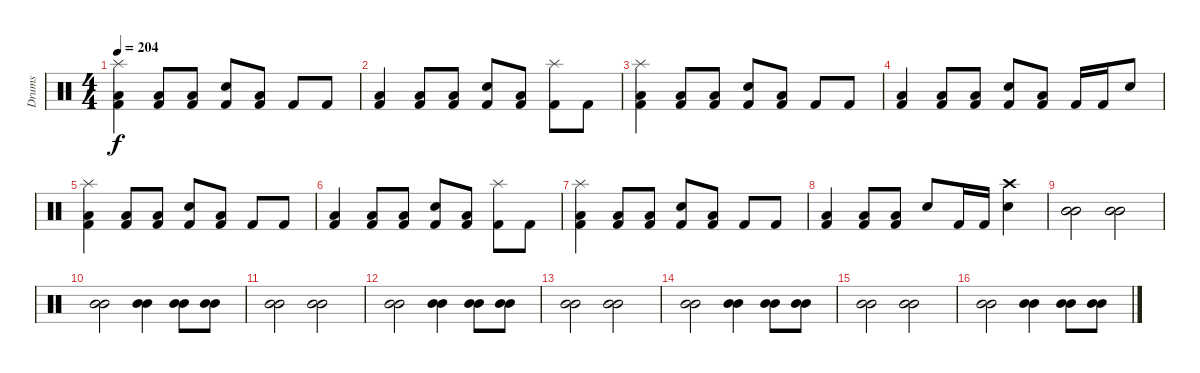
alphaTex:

\track ("Drums" "Drums") {instrument percussion}
\staff {score}
\articulation defaults
\ts (4 4)
\tempo 204
\clef neutral
\ks c
("Splash (hit)" "Low Floor Tom (hit)" "Kick (hit) 2").4{dy f} ("Low Floor Tom (hit)" "Kick (hit) 2").8 ("Low Floor Tom (hit)" "Kick (hit) 2").8 ("Electric Snare (hit)" "Kick (hit) 2").8 ("Low Floor Tom (hit)" "Kick (hit) 2").8 "Kick (hit) 2".8 "Kick (hit) 2".8 |
("Low Floor Tom (hit)" "Kick (hit) 2").4 ("Low Floor Tom (hit)" "Kick (hit) 2").8 ("Low Floor Tom (hit)" "Kick (hit) 2").8 ("Electric Snare (hit)" "Kick (hit) 2").8 ("Low Floor Tom (hit)" "Kick (hit) 2").8 ("Splash (hit)" "Kick (hit) 2").8 "Kick (hit) 2".8 |
("Splash (hit)" "Low Floor Tom (hit)" "Kick (hit) 2").4 ("Low Floor Tom (hit)" "Kick (hit) 2").8 ("Low Floor Tom (hit)" "Kick (hit) 2").8 ("Electric Snare (hit)" "Kick (hit) 2").8 ("Low Floor Tom (hit)" "Kick (hit) 2").8 "Kick (hit) 2".8 "Kick (hit) 2".8 |
("Low Floor Tom (hit)" "Kick (hit) 2").4 ("Low Floor Tom (hit)" "Kick (hit) 2").8 ("Low Floor Tom (hit)" "Kick (hit) 2").8 ("Electric Snare (hit)" "Kick (hit) 2").8 ("Low Floor Tom (hit)" "Kick (hit) 2").8 "Kick (hit) 2".16 "Kick (hit) 2".16 "Electric Snare (hit)".8 |
("Splash (hit)" "Low Floor Tom (hit)" "Kick (hit) 2").4 ("Low Floor Tom (hit)" "Kick (hit) 2").8 ("Low Floor Tom (hit)" "Kick (hit) 2").8 ("Electric Snare (hit)" "Kick (hit) 2").8 ("Low Floor Tom (hit)" "Kick (hit) 2").8 "Kick (hit) 2".8 "Kick (hit) 2".8 |
("Low Floor Tom (hit)" "Kick (hit) 2").4 ("Low Floor Tom (hit)" "Kick (hit) 2").8 ("Low Floor Tom (hit)" "Kick (hit) 2").8 ("Electric Snare (hit)" "Kick (hit) 2").8 ("Low Floor Tom (hit)" "Kick (hit) 2").8 ("Splash (hit)" "Kick (hit) 2").8 "Kick (hit) 2".8 |
("Splash (hit)" "Low Floor Tom (hit)" "Kick (hit) 2").4 ("Low Floor Tom (hit)" "Kick (hit) 2").8 ("Low Floor Tom (hit)" "Kick (hit) 2").8 ("Electric Snare (hit)" "Kick (hit) 2").8 ("Low Floor Tom (hit)" "Kick (hit) 2").8 "Kick (hit) 2".8 "Kick (hit) 2".8 |
("Low Floor Tom (hit)" "Kick (hit) 2").4 ("Low Floor Tom (hit)" "Kick (hit) 2").8 ("Low Floor Tom (hit)" "Kick (hit) 2").8 "Electric Snare (hit)".8 "Kick (hit) 2".16 "Kick (hit) 2".16 ("Crash high (hit)" "Electric Snare (hit)").4 |
("Mid Tom (hit)" "Mid Tom (hit)").2 ("Mid Tom (hit)" "Mid Tom (hit)").2 |
("Mid Tom (hit)" "Mid Tom (hit)").2 ("Mid Tom (hit)" "Mid Tom (hit)").4 ("Mid Tom (hit)" "Mid Tom (hit)").8 ("Mid Tom (hit)" "Mid Tom (hit)").8 |
("Mid Tom (hit)" "Mid Tom (hit)").2 ("Mid Tom (hit)" "Mid Tom (hit)").2 |
("Mid Tom (hit)" "Mid Tom (hit)").2 ("Mid Tom (hit)" "Mid Tom (hit)").4 ("Mid Tom (hit)" "Mid Tom (hit)").8 ("Mid Tom (hit)" "Mid Tom (hit)").8 |
("Mid Tom (hit)" "Mid Tom (hit)").2 ("Mid Tom (hit)" "Mid Tom (hit)").2 |
("Mid Tom (hit)" "Mid Tom (hit)").2 ("Mid Tom (hit)" "Mid Tom (hit)").4 ("Mid Tom (hit)" "Mid Tom (hit)").8 ("Mid Tom (hit)" "Mid Tom (hit)").8 |
("Mid Tom (hit)" "Mid Tom (hit)").2 ("Mid Tom (hit)" "Mid Tom (hit)").2 |
("Mid Tom (hit)" "Mid Tom (hit)").2 ("Mid Tom (hit)" "Mid Tom (hit)").4 ("Mid Tom (hit)" "Mid Tom (hit)").8 ("Mid Tom (hit)" "Mid Tom (hit)").8
